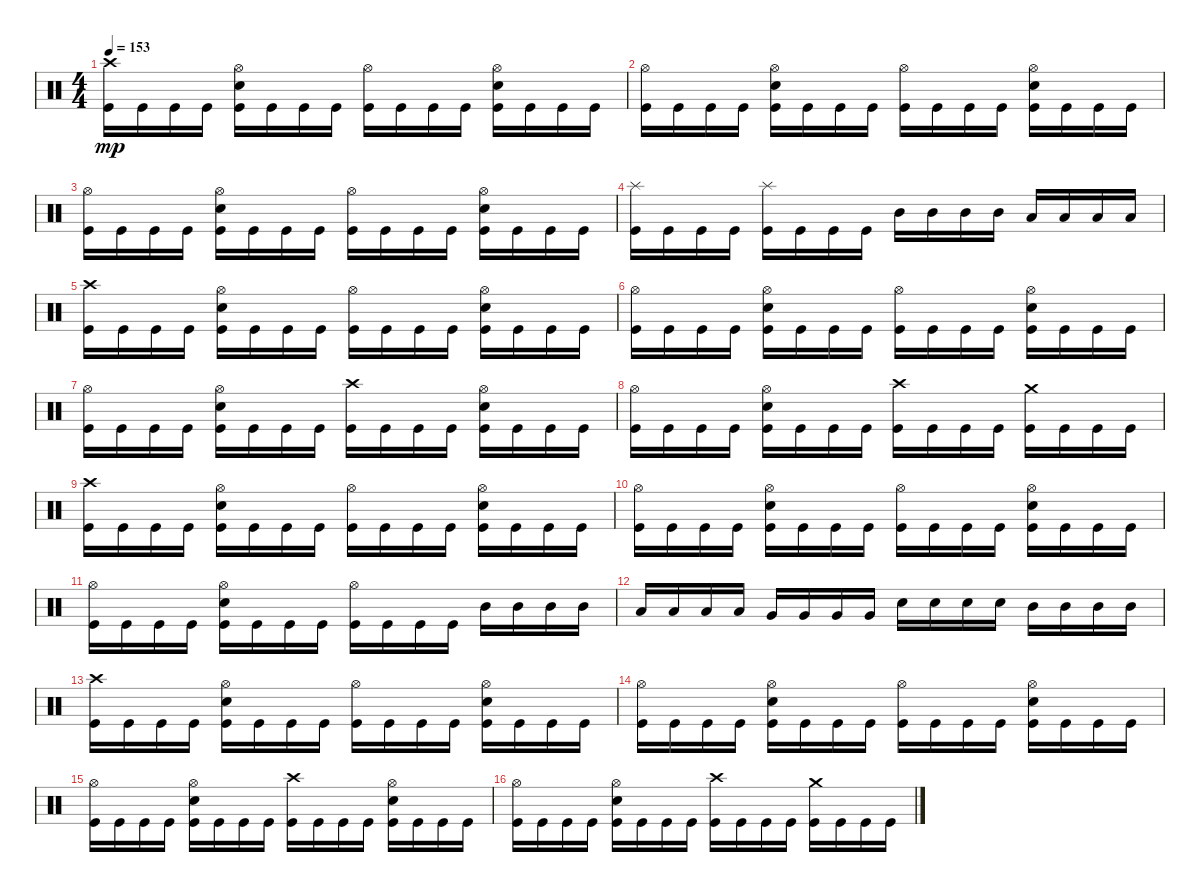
\track "" {instrument percussion}
\staff {score}
\articulation defaults
\ts (4 4)
\tempo 153
\clef neutral
\ks c
("Kick (hit)" "Crash high (hit)").16{dy mp} "Kick (hit)".16 "Kick (hit)".16 "Kick (hit)".16 ("Kick (hit)" "Snare (hit) 2" "Hi-Hat (open)").16 "Kick (hit)".16 "Kick (hit)".16 "Kick (hit)".16 ("Kick (hit)" "Hi-Hat (open)").16 "Kick (hit)".16 "Kick (hit)".16 "Kick (hit)".16 ("Kick (hit)" "Snare (hit) 2" "Hi-Hat (open)").16 "Kick (hit)".16 "Kick (hit)".16 "Kick (hit)".16 |
("Kick (hit)" "Hi-Hat (open)").16 "Kick (hit)".16 "Kick (hit)".16 "Kick (hit)".16 ("Kick (hit)" "Snare (hit) 2" "Hi-Hat (open)").16 "Kick (hit)".16 "Kick (hit)".16 "Kick (hit)".16 ("Kick (hit)" "Hi-Hat (open)").16 "Kick (hit)".16 "Kick (hit)".16 "Kick (hit)".16 ("Kick (hit)" "Snare (hit) 2" "Hi-Hat (open)").16 "Kick (hit)".16 "Kick (hit)".16 "Kick (hit)".16 |
("Kick (hit)" "Hi-Hat (open)").16 "Kick (hit)".16 "Kick (hit)".16 "Kick (hit)".16 ("Kick (hit)" "Snare (hit) 2" "Hi-Hat (open)").16 "Kick (hit)".16 "Kick (hit)".16 "Kick (hit)".16 ("Kick (hit)" "Hi-Hat (open)").16 "Kick (hit)".16 "Kick (hit)".16 "Kick (hit)".16 ("Kick (hit)" "Snare (hit) 2" "Hi-Hat (open)").16 "Kick (hit)".16 "Kick (hit)".16 "Kick (hit)".16 |
("Splash (hit)" "Kick (hit)").16 "Kick (hit)".16 "Kick (hit)".16 "Kick (hit)".16 ("Splash (hit)" "Kick (hit)").16 "Kick (hit)".16 "Kick (hit)".16 "Kick (hit)".16 "Mid Tom (hit)".16 "Mid Tom (hit)".16 "Mid Tom (hit)".16 "Mid Tom (hit)".16 "Low Tom (hit)".16 "Low Tom (hit)".16 "Low Tom (hit)".16 "Low Tom (hit)".16 |
("Kick (hit)" "Crash high (hit)").16 "Kick (hit)".16 "Kick (hit)".16 "Kick (hit)".16 ("Kick (hit)" "Snare (hit) 2" "Hi-Hat (open)").16 "Kick (hit)".16 "Kick (hit)".16 "Kick (hit)".16 ("Kick (hit)" "Hi-Hat (open)").16 "Kick (hit)".16 "Kick (hit)".16 "Kick (hit)".16 ("Kick (hit)" "Snare (hit) 2" "Hi-Hat (open)").16 "Kick (hit)".16 "Kick (hit)".16 "Kick (hit)".16 |
("Kick (hit)" "Hi-Hat (open)").16 "Kick (hit)".16 "Kick (hit)".16 "Kick (hit)".16 ("Kick (hit)" "Snare (hit) 2" "Hi-Hat (open)").16 "Kick (hit)".16 "Kick (hit)".16 "Kick (hit)".16 ("Kick (hit)" "Hi-Hat (open)").16 "Kick (hit)".16 "Kick (hit)".16 "Kick (hit)".16 ("Kick (hit)" "Snare (hit) 2" "Hi-Hat (open)").16 "Kick (hit)".16 "Kick (hit)".16 "Kick (hit)".16 |
("Kick (hit)" "Hi-Hat (open)").16 "Kick (hit)".16 "Kick (hit)".16 "Kick (hit)".16 ("Kick (hit)" "Snare (hit) 2" "Hi-Hat (open)").16 "Kick (hit)".16 "Kick (hit)".16 "Kick (hit)".16 ("Kick (hit)" "Crash high (hit)").16 "Kick (hit)".16 "Kick (hit)".16 "Kick (hit)".16 ("Kick (hit)" "Snare (hit) 2" "Hi-Hat (open)").16 "Kick (hit)".16 "Kick (hit)".16 "Kick (hit)".16 |
("Hi-Hat (open)" "Kick (hit)").16 "Kick (hit)".16 "Kick (hit)".16 "Kick (hit)".16 ("Kick (hit)" "Snare (hit) 2" "Hi-Hat (open)").16 "Kick (hit)".16 "Kick (hit)".16 "Kick (hit)".16 ("Kick (hit)" "Crash high (hit)").16 "Kick (hit)".16 "Kick (hit)".16 "Kick (hit)".16 ("Kick (hit)" "Crash medium (hit)").16 "Kick (hit)".16 "Kick (hit)".16 "Kick (hit)".16 |
("Kick (hit)" "Crash high (hit)").16 "Kick (hit)".16 "Kick (hit)".16 "Kick (hit)".16 ("Kick (hit)" "Snare (hit) 2" "Hi-Hat (open)").16 "Kick (hit)".16 "Kick (hit)".16 "Kick (hit)".16 ("Kick (hit)" "Hi-Hat (open)").16 "Kick (hit)".16 "Kick (hit)".16 "Kick (hit)".16 ("Kick (hit)" "Snare (hit) 2" "Hi-Hat (open)").16 "Kick (hit)".16 "Kick (hit)".16 "Kick (hit)".16 |
("Kick (hit)" "Hi-Hat (open)").16 "Kick (hit)".16 "Kick (hit)".16 "Kick (hit)".16 ("Kick (hit)" "Snare (hit) 2" "Hi-Hat (open)").16 "Kick (hit)".16 "Kick (hit)".16 "Kick (hit)".16 ("Kick (hit)" "Hi-Hat (open)").16 "Kick (hit)".16 "Kick (hit)".16 "Kick (hit)".16 ("Kick (hit)" "Snare (hit) 2" "Hi-Hat (open)").16 "Kick (hit)".16 "Kick (hit)".16 "Kick (hit)".16 |
("Kick (hit)" "Hi-Hat (open)").16 "Kick (hit)".16 "Kick (hit)".16 "Kick (hit)".16 ("Kick (hit)" "Snare (hit) 2" "Hi-Hat (open)").16 "Kick (hit)".16 "Kick (hit)".16 "Kick (hit)".16 ("Kick (hit)" "Hi-Hat (open)").16 "Kick (hit)".16 "Kick (hit)".16 "Kick (hit)".16 "Mid Tom (hit)".16 "Mid Tom (hit)".16 "Mid Tom (hit)".16 "Mid Tom (hit)".16 |
"Low Tom (hit)".16 "Low Tom (hit)".16 "Low Tom (hit)".16 "Low Tom (hit)".16 "Very Low Tom (hit)".16 "Very Low Tom (hit)".16 "Very Low Tom (hit)".16 "Very Low Tom (hit)".16 "Snare (hit) 2".16 "Snare (hit) 2".16 "Snare (hit) 2".16 "Snare (hit) 2".16 "Mid Tom (hit)".16 "Mid Tom (hit)".16 "Mid Tom (hit)".16 "Mid Tom (hit)".16 |
("Kick (hit)" "Crash high (hit)").16 "Kick (hit)".16 "Kick (hit)".16 "Kick (hit)".16 ("Kick (hit)" "Snare (hit) 2" "Hi-Hat (open)").16 "Kick (hit)".16 "Kick (hit)".16 "Kick (hit)".16 ("Kick (hit)" "Hi-Hat (open)").16 "Kick (hit)".16 "Kick (hit)".16 "Kick (hit)".16 ("Kick (hit)" "Snare (hit) 2" "Hi-Hat (open)").16 "Kick (hit)".16 "Kick (hit)".16 "Kick (hit)".16 |
("Kick (hit)" "Hi-Hat (open)").16 "Kick (hit)".16 "Kick (hit)".16 "Kick (hit)".16 ("Kick (hit)" "Snare (hit) 2" "Hi-Hat (open)").16 "Kick (hit)".16 "Kick (hit)".16 "Kick (hit)".16 ("Kick (hit)" "Hi-Hat (open)").16 "Kick (hit)".16 "Kick (hit)".16 "Kick (hit)".16 ("Kick (hit)" "Hi-Hat (open)" "Snare (hit) 2").16 "Kick (hit)".16 "Kick (hit)".16 "Kick (hit)".16 |
("Kick (hit)" "Hi-Hat (open)").16 "Kick (hit)".16 "Kick (hit)".16 "Kick (hit)".16 ("Kick (hit)" "Snare (hit) 2" "Hi-Hat (open)").16 "Kick (hit)".16 "Kick (hit)".16 "Kick (hit)".16 ("Kick (hit)" "Crash high (hit)").16 "Kick (hit)".16 "Kick (hit)".16 "Kick (hit)".16 ("Kick (hit)" "Snare (hit) 2" "Hi-Hat (open)").16 "Kick (hit)".16 "Kick (hit)".16 "Kick (hit)".16 |
("Hi-Hat (open)" "Kick (hit)").16 "Kick (hit)".16 "Kick (hit)".16 "Kick (hit)".16 ("Kick (hit)" "Snare (hit) 2" "Hi-Hat (open)").16 "Kick (hit)".16 "Kick (hit)".16 "Kick (hit)".16 ("Kick (hit)" "Crash high (hit)").16 "Kick (hit)".16 "Kick (hit)".16 "Kick (hit)".16 ("Kick (hit)" "Crash medium (hit)").16 "Kick (hit)".16 "Kick (hit)".16 "Kick (hit)".16
